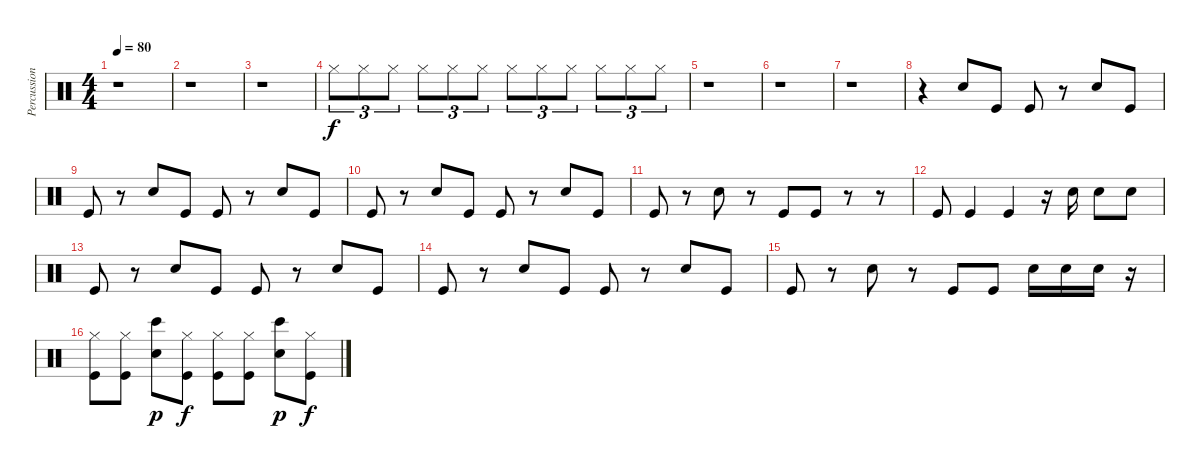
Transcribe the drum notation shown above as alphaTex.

\track ("Percussions" "Percussion") {instrument percussion}
\staff {score}
\articulation defaults
\ts (4 4)
\tempo 80
\clef neutral
\ks c
r.1{dy f} |
r.1 |
r.1 |
"Hi-Hat (closed)".8{tu (3 2) volume 2} "Hi-Hat (closed)".8{tu (3 2)} "Hi-Hat (closed)".8{tu (3 2)} "Hi-Hat (closed)".8{tu (3 2)} "Hi-Hat (closed)".8{tu (3 2)} "Hi-Hat (closed)".8{tu (3 2)} "Hi-Hat (closed)".8{tu (3 2)} "Hi-Hat (closed)".8{tu (3 2)} "Hi-Hat (closed)".8{tu (3 2)} "Hi-Hat (closed)".8{tu (3 2)} "Hi-Hat (closed)".8{tu (3 2)} "Hi-Hat (closed)".8{tu (3 2)} |
r.1{volume 13} |
r.1 |
r.1 |
r.4 "Electric Snare (hit)".8 "Kick (hit)".8 "Kick (hit)".8 r.8 "Electric Snare (hit)".8 "Kick (hit)".8 |
"Kick (hit)".8 r.8 "Electric Snare (hit)".8 "Kick (hit)".8 "Kick (hit)".8 r.8 "Electric Snare (hit)".8 "Kick (hit)".8 |
"Kick (hit)".8 r.8 "Electric Snare (hit)".8 "Kick (hit)".8 "Kick (hit)".8 r.8 "Electric Snare (hit)".8 "Kick (hit)".8 |
"Kick (hit)".8 r.8 "Electric Snare (hit)".8 r.8 "Kick (hit)".8 "Kick (hit)".8 r.8 r.8 |
"Kick (hit)".8 "Kick (hit)".4 "Kick (hit)".4 r.16 "Electric Snare (hit)".16 "Electric Snare (hit)".8 "Electric Snare (hit)".8 |
"Kick (hit)".8 r.8 "Electric Snare (hit)".8 "Kick (hit)".8 "Kick (hit)".8 r.8 "Electric Snare (hit)".8 "Kick (hit)".8 |
"Kick (hit)".8 r.8 "Electric Snare (hit)".8 "Kick (hit)".8 "Kick (hit)".8 r.8 "Electric Snare (hit)".8 "Kick (hit)".8 |
"Kick (hit)".8 r.8 "Electric Snare (hit)".8 r.8 "Kick (hit)".8 "Kick (hit)".8 "Electric Snare (hit)".16 "Electric Snare (hit)".16 "Electric Snare (hit)".16 r.16 |
("Kick (hit)" "Hi-Hat (closed)").8 ("Kick (hit)" "Hi-Hat (closed)").8 ("Electric Snare (hit)" "Bongo High (hit)").8{dy p} ("Kick (hit)" "Hi-Hat (closed)").8{dy f} ("Kick (hit)" "Hi-Hat (closed)").8 ("Kick (hit)" "Hi-Hat (closed)").8 ("Electric Snare (hit)" "Bongo High (hit)").8{dy p} ("Kick (hit)" "Hi-Hat (closed)").8{dy f}
